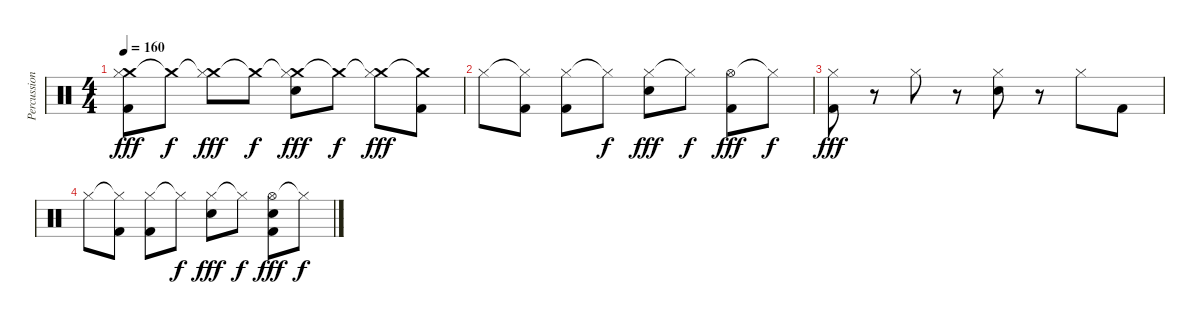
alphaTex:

\track ("Percussions" "Percussion") {instrument percussion}
\staff {score}
\articulation defaults
\ts (4 4)
\tempo 160
\clef neutral
\ks c
("Crash medium (hit)" "Hi-Hat (closed)" "Kick (hit) 2").8{dy fff} "Crash medium (hit)"{t}.8{dy f} ("Crash medium (hit)"{t} "Hi-Hat (closed)").8{dy fff} "Crash medium (hit)"{t}.8{dy f} ("Crash medium (hit)"{t} "Hi-Hat (closed)" "Snare (hit) 2").8{dy fff} "Crash medium (hit)"{t}.8{dy f} ("Crash medium (hit)"{t} "Hi-Hat (closed)").8{dy fff} ("Crash medium (hit)"{t} "Kick (hit) 2").8 |
"Hi-Hat (closed)".8 ("Hi-Hat (closed)"{t} "Kick (hit) 2").8 ("Hi-Hat (closed)" "Kick (hit) 2").8 "Hi-Hat (closed)"{t}.8{dy f} ("Hi-Hat (closed)" "Snare (hit) 2").8{dy fff} "Hi-Hat (closed)"{t}.8{dy f} ("Hi-Hat (open)" "Kick (hit) 2").8{dy fff} "Hi-Hat (closed)"{t}.8{dy f} |
("Hi-Hat (closed)" "Kick (hit) 2").8{dy fff} r.8 "Hi-Hat (closed)".8 r.8 ("Hi-Hat (closed)" "Snare (hit) 2").8 r.8 "Hi-Hat (closed)".8 "Kick (hit) 2".8 |
"Hi-Hat (closed)".8 ("Hi-Hat (closed)"{t} "Kick (hit) 2").8 ("Hi-Hat (closed)" "Kick (hit) 2").8 "Hi-Hat (closed)"{t}.8{dy f} ("Hi-Hat (closed)" "Snare (hit) 2").8{dy fff} "Hi-Hat (closed)"{t}.8{dy f} ("Hi-Hat (open)" "Snare (hit) 2" "Kick (hit) 2").8{dy fff} "Hi-Hat (closed)"{t}.8{dy f}
